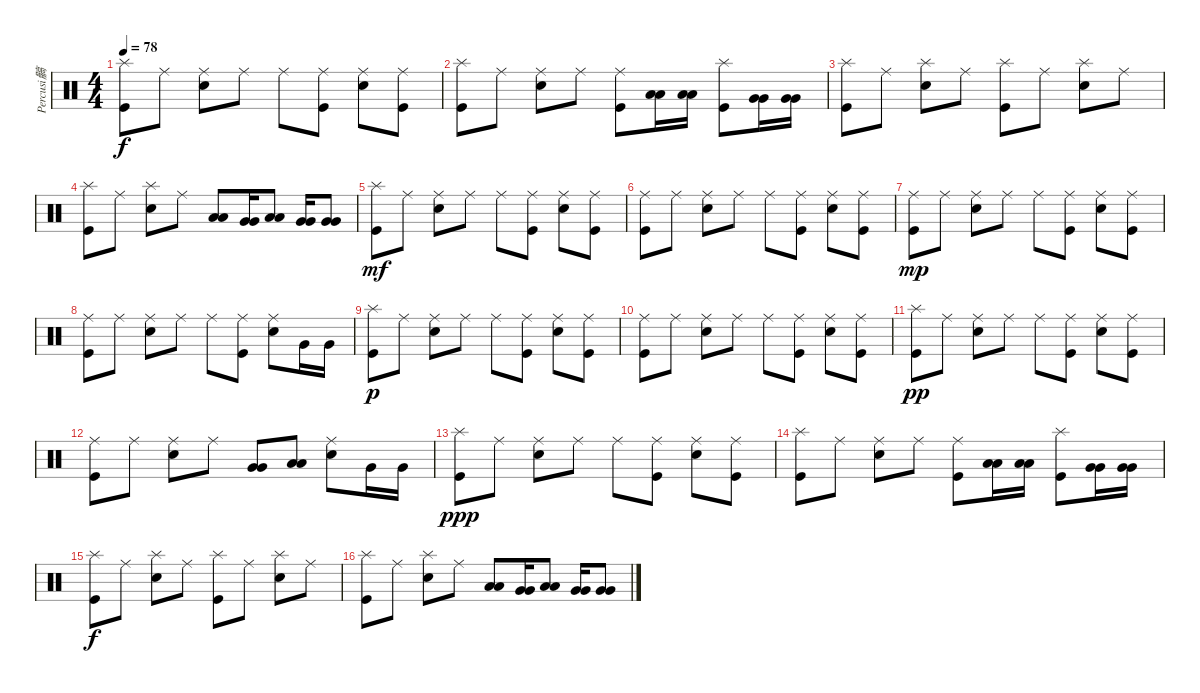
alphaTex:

\track ("Percusi髇" "Percusi髇") {instrument percussion}
\staff {score}
\articulation defaults
\ts (4 4)
\tempo 78
\clef neutral
\ks c
("Splash (hit)" "Kick (hit)").8{dy f} "Ride (middle)".8 ("Ride (middle)" "Snare (hit) 2").8 "Ride (middle)".8 "Ride (middle)".8 ("Ride (middle)" "Kick (hit)").8 ("Ride (middle)" "Snare (hit) 2").8 ("Ride (middle)" "Kick (hit)").8 |
("Splash (hit)" "Kick (hit)").8 "Ride (middle)".8 ("Ride (middle)" "Snare (hit) 2").8 "Ride (middle)".8 ("Ride (middle)" "Kick (hit)").8 ("Low Tom (hit)" "Low Tom (hit)").16 ("Low Tom (hit)" "Low Tom (hit)").16 ("Splash (hit)" "Kick (hit)").8 ("Very Low Tom (hit)" "Very Low Tom (hit)").16 ("Very Low Tom (hit)" "Very Low Tom (hit)").16 |
("Splash (hit)" "Kick (hit)").8 "Ride (middle)".8 ("Splash (hit)" "Snare (hit) 2").8 "Ride (middle)".8 ("Splash (hit)" "Kick (hit)").8 "Ride (middle)".8 ("Splash (hit)" "Snare (hit) 2").8 "Ride (middle)".8 |
("Splash (hit)" "Kick (hit)").8 "Ride (middle)".8 ("Splash (hit)" "Snare (hit) 2").8 "Ride (middle)".8 ("Low Tom (hit)" "Low Tom (hit)").8 ("Very Low Tom (hit)" "Very Low Tom (hit)").16 ("Low Tom (hit)" "Low Tom (hit)").8 ("Very Low Tom (hit)" "Very Low Tom (hit)").16 ("Very Low Tom (hit)" "Very Low Tom (hit)").8 |
("Splash (hit)" "Kick (hit)").8{dy mf volume 4} "Ride (middle)".8 ("Ride (middle)" "Snare (hit) 2").8 "Ride (middle)".8 "Ride (middle)".8 ("Ride (middle)" "Kick (hit)").8 ("Ride (middle)" "Snare (hit) 2").8 ("Ride (middle)" "Kick (hit)").8 |
("Ride (middle)" "Kick (hit)").8 "Ride (middle)".8 ("Ride (middle)" "Snare (hit) 2").8 "Ride (middle)".8 "Ride (middle)".8 ("Ride (middle)" "Kick (hit)").8 ("Ride (middle)" "Snare (hit) 2").8 ("Ride (middle)" "Kick (hit)").8 |
("Ride (middle)" "Kick (hit)").8{dy mp} "Ride (middle)".8 ("Ride (middle)" "Snare (hit) 2").8 "Ride (middle)".8 "Ride (middle)".8 ("Ride (middle)" "Kick (hit)").8 ("Ride (middle)" "Snare (hit) 2").8 ("Ride (middle)" "Kick (hit)").8 |
("Ride (middle)" "Kick (hit)").8 "Ride (middle)".8 ("Ride (middle)" "Snare (hit) 2").8 "Ride (middle)".8 "Ride (middle)".8 ("Ride (middle)" "Kick (hit)").8 ("Ride (middle)" "Snare (hit) 2").8 "Very Low Tom (hit)".16 "Very Low Tom (hit)".16 |
("Splash (hit)" "Kick (hit)").8{dy p} "Ride (middle)".8 ("Ride (middle)" "Snare (hit) 2").8 "Ride (middle)".8 "Ride (middle)".8 ("Ride (middle)" "Kick (hit)").8 ("Ride (middle)" "Snare (hit) 2").8 ("Ride (middle)" "Kick (hit)").8 |
("Ride (middle)" "Kick (hit)").8 "Ride (middle)".8 ("Ride (middle)" "Snare (hit) 2").8 "Ride (middle)".8 "Ride (middle)".8 ("Ride (middle)" "Kick (hit)").8 ("Ride (middle)" "Snare (hit) 2").8 ("Ride (middle)" "Kick (hit)").8 |
("Splash (hit)" "Kick (hit)").8{dy pp} "Ride (middle)".8 ("Ride (middle)" "Snare (hit) 2").8 "Ride (middle)".8 "Ride (middle)".8 ("Ride (middle)" "Kick (hit)").8 ("Ride (middle)" "Snare (hit) 2").8 ("Ride (middle)" "Kick (hit)").8 |
("Ride (middle)" "Kick (hit)").8{volume 0} "Ride (middle)".8 ("Ride (middle)" "Snare (hit) 2").8 "Ride (middle)".8 ("Very Low Tom (hit)" "Very Low Tom (hit)").8 ("Low Tom (hit)" "Low Tom (hit)").8 ("Ride (middle)" "Snare (hit) 2").8 "Very Low Tom (hit)".16 "Very Low Tom (hit)".16 |
("Splash (hit)" "Kick (hit)").8{dy ppp} "Ride (middle)".8 ("Ride (middle)" "Snare (hit) 2").8 "Ride (middle)".8 "Ride (middle)".8 ("Ride (middle)" "Kick (hit)").8 ("Ride (middle)" "Snare (hit) 2").8 ("Ride (middle)" "Kick (hit)").8 |
("Splash (hit)" "Kick (hit)").8 "Ride (middle)".8 ("Ride (middle)" "Snare (hit) 2").8 "Ride (middle)".8 ("Ride (middle)" "Kick (hit)").8 ("Low Tom (hit)" "Low Tom (hit)").16 ("Low Tom (hit)" "Low Tom (hit)").16 ("Splash (hit)" "Kick (hit)").8 ("Very Low Tom (hit)" "Very Low Tom (hit)").16 ("Very Low Tom (hit)" "Very Low Tom (hit)").16 |
("Splash (hit)" "Kick (hit)").8{dy f} "Ride (middle)".8 ("Splash (hit)" "Snare (hit) 2").8 "Ride (middle)".8 ("Splash (hit)" "Kick (hit)").8 "Ride (middle)".8 ("Splash (hit)" "Snare (hit) 2").8 "Ride (middle)".8 |
("Splash (hit)" "Kick (hit)").8 "Ride (middle)".8 ("Splash (hit)" "Snare (hit) 2").8 "Ride (middle)".8 ("Low Tom (hit)" "Low Tom (hit)").8 ("Very Low Tom (hit)" "Very Low Tom (hit)").16 ("Low Tom (hit)" "Low Tom (hit)").8 ("Very Low Tom (hit)" "Very Low Tom (hit)").16 ("Very Low Tom (hit)" "Very Low Tom (hit)").8
